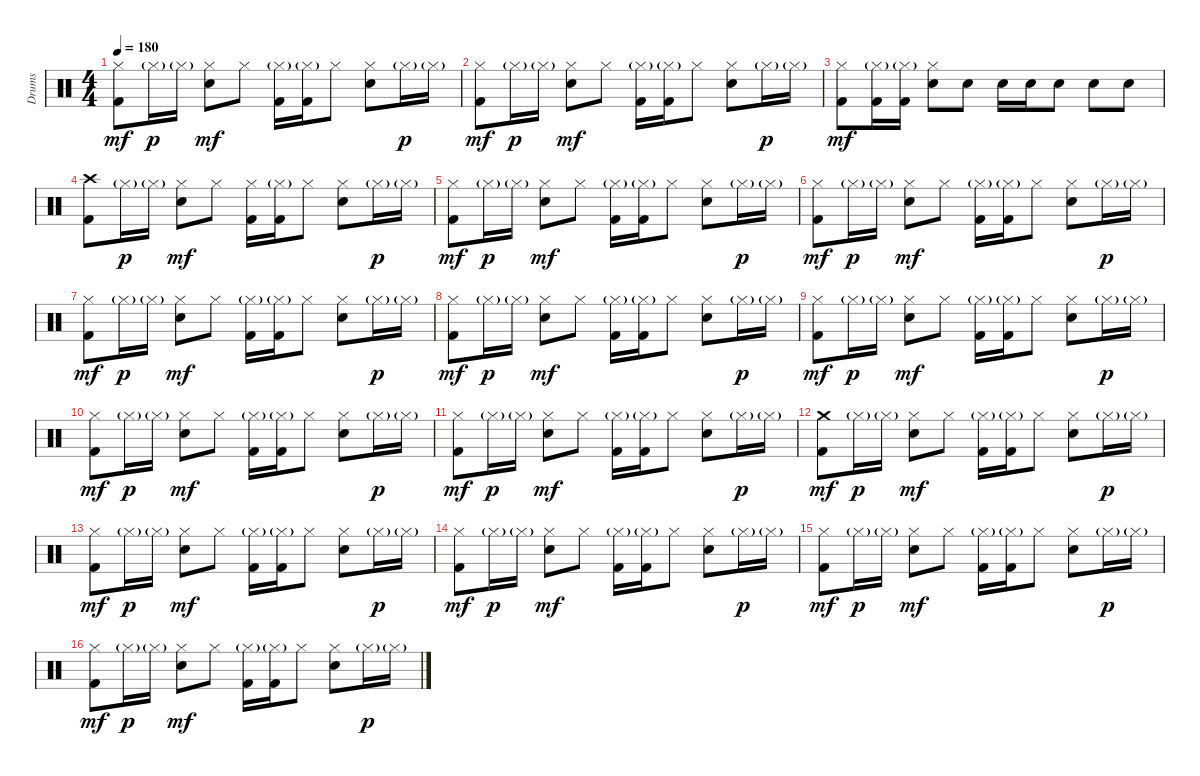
\track ("Drums" "Drums") {instrument percussion}
\staff {score}
\articulation defaults
\ts (4 4)
\tempo 180
\clef neutral
\ks c
("Hi-Hat (closed)" "Kick (hit) 2").8{dy mf} "Hi-Hat (closed)"{g}.16{dy p} "Hi-Hat (closed)"{g}.16 ("Hi-Hat (closed)" "Snare (hit) 2").8{dy mf} "Hi-Hat (closed)".8 ("Hi-Hat (closed)"{g} "Kick (hit) 2").16 ("Hi-Hat (closed)"{g} "Kick (hit) 2").16 "Hi-Hat (closed)".8 ("Hi-Hat (closed)" "Snare (hit) 2").8 "Hi-Hat (closed)"{g}.16{dy p} "Hi-Hat (closed)"{g}.16 |
("Hi-Hat (closed)" "Kick (hit) 2").8{dy mf} "Hi-Hat (closed)"{g}.16{dy p} "Hi-Hat (closed)"{g}.16 ("Hi-Hat (closed)" "Snare (hit) 2").8{dy mf} "Hi-Hat (closed)".8 ("Hi-Hat (closed)"{g} "Kick (hit) 2").16 ("Hi-Hat (closed)"{g} "Kick (hit) 2").16 "Hi-Hat (closed)".8 ("Hi-Hat (closed)" "Snare (hit) 2").8 "Hi-Hat (closed)"{g}.16{dy p} "Hi-Hat (closed)"{g}.16 |
("Hi-Hat (closed)" "Kick (hit) 2").8{dy mf} ("Hi-Hat (closed)"{g} "Kick (hit) 2").16 ("Hi-Hat (closed)"{g} "Kick (hit) 2").16 ("Hi-Hat (closed)" "Snare (hit) 2").8 "Snare (hit) 2".8 "Snare (hit) 2".16 "Snare (hit) 2".16 "Snare (hit) 2".8 "Snare (hit) 2".8 "Snare (hit) 2".8 |
("Crash high (hit)" "Kick (hit) 2").8 "Hi-Hat (closed)"{g}.16{dy p} "Hi-Hat (closed)"{g}.16 ("Hi-Hat (closed)" "Snare (hit) 2").8{dy mf} "Hi-Hat (closed)".8 ("Hi-Hat (closed)" "Kick (hit) 2").16 ("Hi-Hat (closed)"{g} "Kick (hit) 2").16 "Hi-Hat (closed)".8 ("Hi-Hat (closed)" "Snare (hit) 2").8 "Hi-Hat (closed)"{g}.16{dy p} "Hi-Hat (closed)"{g}.16 |
("Hi-Hat (closed)" "Kick (hit) 2").8{dy mf} "Hi-Hat (closed)"{g}.16{dy p} "Hi-Hat (closed)"{g}.16 ("Hi-Hat (closed)" "Snare (hit) 2").8{dy mf} "Hi-Hat (closed)".8 ("Hi-Hat (closed)"{g} "Kick (hit) 2").16 ("Hi-Hat (closed)"{g} "Kick (hit) 2").16 "Hi-Hat (closed)".8 ("Hi-Hat (closed)" "Snare (hit) 2").8 "Hi-Hat (closed)"{g}.16{dy p} "Hi-Hat (closed)"{g}.16 |
("Hi-Hat (closed)" "Kick (hit) 2").8{dy mf} "Hi-Hat (closed)"{g}.16{dy p} "Hi-Hat (closed)"{g}.16 ("Hi-Hat (closed)" "Snare (hit) 2").8{dy mf} "Hi-Hat (closed)".8 ("Hi-Hat (closed)"{g} "Kick (hit) 2").16 ("Hi-Hat (closed)"{g} "Kick (hit) 2").16 "Hi-Hat (closed)".8 ("Hi-Hat (closed)" "Snare (hit) 2").8 "Hi-Hat (closed)"{g}.16{dy p} "Hi-Hat (closed)"{g}.16 |
("Hi-Hat (closed)" "Kick (hit) 2").8{dy mf} "Hi-Hat (closed)"{g}.16{dy p} "Hi-Hat (closed)"{g}.16 ("Hi-Hat (closed)" "Snare (hit) 2").8{dy mf} "Hi-Hat (closed)".8 ("Hi-Hat (closed)"{g} "Kick (hit) 2").16 ("Hi-Hat (closed)"{g} "Kick (hit) 2").16 "Hi-Hat (closed)".8 ("Hi-Hat (closed)" "Snare (hit) 2").8 "Hi-Hat (closed)"{g}.16{dy p} "Hi-Hat (closed)"{g}.16 |
("Hi-Hat (closed)" "Kick (hit) 2").8{dy mf} "Hi-Hat (closed)"{g}.16{dy p} "Hi-Hat (closed)"{g}.16 ("Hi-Hat (closed)" "Snare (hit) 2").8{dy mf} "Hi-Hat (closed)".8 ("Hi-Hat (closed)"{g} "Kick (hit) 2").16 ("Hi-Hat (closed)"{g} "Kick (hit) 2").16 "Hi-Hat (closed)".8 ("Hi-Hat (closed)" "Snare (hit) 2").8 "Hi-Hat (closed)"{g}.16{dy p} "Hi-Hat (closed)"{g}.16 |
("Hi-Hat (closed)" "Kick (hit) 2").8{dy mf} "Hi-Hat (closed)"{g}.16{dy p} "Hi-Hat (closed)"{g}.16 ("Hi-Hat (closed)" "Snare (hit) 2").8{dy mf} "Hi-Hat (closed)".8 ("Hi-Hat (closed)"{g} "Kick (hit) 2").16 ("Hi-Hat (closed)"{g} "Kick (hit) 2").16 "Hi-Hat (closed)".8 ("Hi-Hat (closed)" "Snare (hit) 2").8 "Hi-Hat (closed)"{g}.16{dy p} "Hi-Hat (closed)"{g}.16 |
("Hi-Hat (closed)" "Kick (hit) 2").8{dy mf} "Hi-Hat (closed)"{g}.16{dy p} "Hi-Hat (closed)"{g}.16 ("Hi-Hat (closed)" "Snare (hit) 2").8{dy mf} "Hi-Hat (closed)".8 ("Hi-Hat (closed)"{g} "Kick (hit) 2").16 ("Hi-Hat (closed)"{g} "Kick (hit) 2").16 "Hi-Hat (closed)".8 ("Hi-Hat (closed)" "Snare (hit) 2").8 "Hi-Hat (closed)"{g}.16{dy p} "Hi-Hat (closed)"{g}.16 |
("Hi-Hat (closed)" "Kick (hit) 2").8{dy mf} "Hi-Hat (closed)"{g}.16{dy p} "Hi-Hat (closed)"{g}.16 ("Hi-Hat (closed)" "Snare (hit) 2").8{dy mf} "Hi-Hat (closed)".8 ("Hi-Hat (closed)"{g} "Kick (hit) 2").16 ("Hi-Hat (closed)"{g} "Kick (hit) 2").16 "Hi-Hat (closed)".8 ("Hi-Hat (closed)" "Snare (hit) 2").8 "Hi-Hat (closed)"{g}.16{dy p} "Hi-Hat (closed)"{g}.16 |
("Crash medium (hit)" "Kick (hit) 2").8{dy mf} "Hi-Hat (closed)"{g}.16{dy p} "Hi-Hat (closed)"{g}.16 ("Hi-Hat (closed)" "Snare (hit) 2").8{dy mf} "Hi-Hat (closed)".8 ("Hi-Hat (closed)"{g} "Kick (hit) 2").16 ("Hi-Hat (closed)"{g} "Kick (hit) 2").16 "Hi-Hat (closed)".8 ("Hi-Hat (closed)" "Snare (hit) 2").8 "Hi-Hat (closed)"{g}.16{dy p} "Hi-Hat (closed)"{g}.16 |
("Hi-Hat (closed)" "Kick (hit) 2").8{dy mf} "Hi-Hat (closed)"{g}.16{dy p} "Hi-Hat (closed)"{g}.16 ("Hi-Hat (closed)" "Snare (hit) 2").8{dy mf} "Hi-Hat (closed)".8 ("Hi-Hat (closed)"{g} "Kick (hit) 2").16 ("Hi-Hat (closed)"{g} "Kick (hit) 2").16 "Hi-Hat (closed)".8 ("Hi-Hat (closed)" "Snare (hit) 2").8 "Hi-Hat (closed)"{g}.16{dy p} "Hi-Hat (closed)"{g}.16 |
("Hi-Hat (closed)" "Kick (hit) 2").8{dy mf} "Hi-Hat (closed)"{g}.16{dy p} "Hi-Hat (closed)"{g}.16 ("Hi-Hat (closed)" "Snare (hit) 2").8{dy mf} "Hi-Hat (closed)".8 ("Hi-Hat (closed)"{g} "Kick (hit) 2").16 ("Hi-Hat (closed)"{g} "Kick (hit) 2").16 "Hi-Hat (closed)".8 ("Hi-Hat (closed)" "Snare (hit) 2").8 "Hi-Hat (closed)"{g}.16{dy p} "Hi-Hat (closed)"{g}.16 |
("Hi-Hat (closed)" "Kick (hit) 2").8{dy mf} "Hi-Hat (closed)"{g}.16{dy p} "Hi-Hat (closed)"{g}.16 ("Hi-Hat (closed)" "Snare (hit) 2").8{dy mf} "Hi-Hat (closed)".8 ("Hi-Hat (closed)"{g} "Kick (hit) 2").16 ("Hi-Hat (closed)"{g} "Kick (hit) 2").16 "Hi-Hat (closed)".8 ("Hi-Hat (closed)" "Snare (hit) 2").8 "Hi-Hat (closed)"{g}.16{dy p} "Hi-Hat (closed)"{g}.16 |
("Hi-Hat (closed)" "Kick (hit) 2").8{dy mf} "Hi-Hat (closed)"{g}.16{dy p} "Hi-Hat (closed)"{g}.16 ("Hi-Hat (closed)" "Snare (hit) 2").8{dy mf} "Hi-Hat (closed)".8 ("Hi-Hat (closed)"{g} "Kick (hit) 2").16 ("Hi-Hat (closed)"{g} "Kick (hit) 2").16 "Hi-Hat (closed)".8 ("Hi-Hat (closed)" "Snare (hit) 2").8 "Hi-Hat (closed)"{g}.16{dy p} "Hi-Hat (closed)"{g}.16
